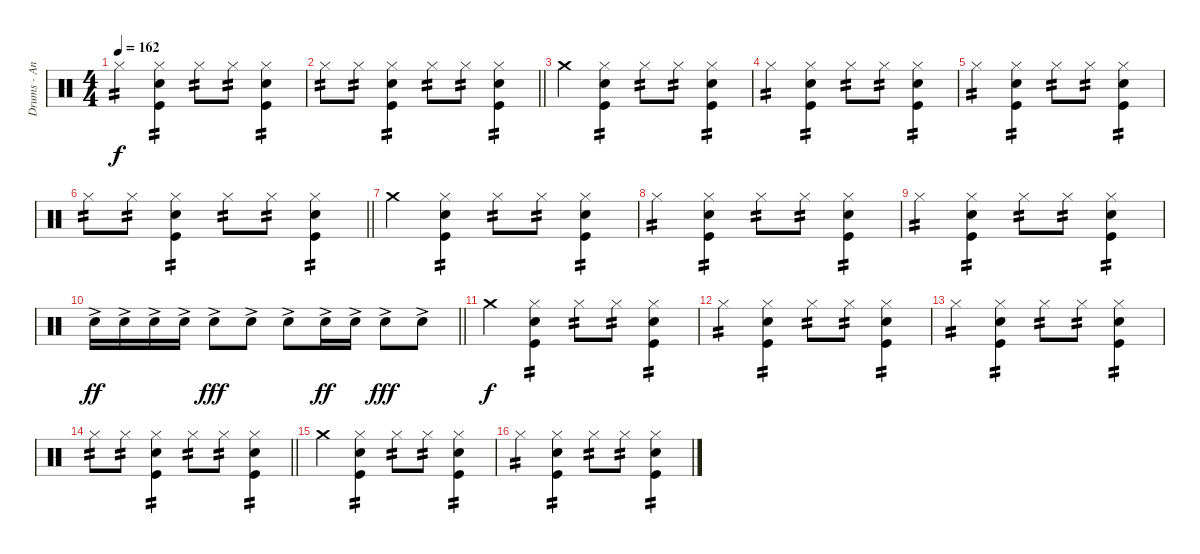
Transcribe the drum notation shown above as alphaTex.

\track ("Drums - Andriushkin" "Drums - An") {instrument percussion}
\staff {score}
\articulation defaults
\ts (4 4)
\tempo 162
\clef neutral
\ks c "Hi-Hat (closed)".4{tp 2 dy f}
("Hi-Hat (closed)" "Electric Snare (hit)" "Kick (hit)").4{tp 2} "Hi-Hat (closed)".8{tp 2} "Hi-Hat (closed)".8{tp 2} ("Hi-Hat (closed)" "Electric Snare (hit)" "Kick (hit)").4{tp 2} |
\barLineRight lightlight "Hi-Hat (closed)".8{tp 2} "Hi-Hat (closed)".8{tp 2}
("Hi-Hat (closed)" "Electric Snare (hit)" "Kick (hit)").4{tp 2} "Hi-Hat (closed)".8{tp 2} "Hi-Hat (closed)".8{tp 2} ("Hi-Hat (closed)" "Electric Snare (hit)" "Kick (hit)").4{tp 2} |
"Crash medium (hit)".4 ("Hi-Hat (closed)" "Electric Snare (hit)" "Kick (hit)").4{tp 2} "Hi-Hat (closed)".8{tp 2} "Hi-Hat (closed)".8{tp 2} ("Hi-Hat (closed)" "Electric Snare (hit)" "Kick (hit)").4{tp 2} |
"Hi-Hat (closed)".4{tp 2} ("Hi-Hat (closed)" "Electric Snare (hit)" "Kick (hit)").4{tp 2} "Hi-Hat (closed)".8{tp 2} "Hi-Hat (closed)".8{tp 2} ("Hi-Hat (closed)" "Electric Snare (hit)" "Kick (hit)").4{tp 2} |
"Hi-Hat (closed)".4{tp 2} ("Hi-Hat (closed)" "Electric Snare (hit)" "Kick (hit)").4{tp 2} "Hi-Hat (closed)".8{tp 2} "Hi-Hat (closed)".8{tp 2} ("Hi-Hat (closed)" "Electric Snare (hit)" "Kick (hit)").4{tp 2} |
\barLineRight lightlight "Hi-Hat (closed)".8{tp 2} "Hi-Hat (closed)".8{tp 2}
("Hi-Hat (closed)" "Electric Snare (hit)" "Kick (hit)").4{tp 2} "Hi-Hat (closed)".8{tp 2} "Hi-Hat (closed)".8{tp 2} ("Hi-Hat (closed)" "Electric Snare (hit)" "Kick (hit)").4{tp 2} |
"Crash medium (hit)".4 ("Hi-Hat (closed)" "Electric Snare (hit)" "Kick (hit)").4{tp 2} "Hi-Hat (closed)".8{tp 2} "Hi-Hat (closed)".8{tp 2} ("Hi-Hat (closed)" "Electric Snare (hit)" "Kick (hit)").4{tp 2} |
"Hi-Hat (closed)".4{tp 2} ("Hi-Hat (closed)" "Electric Snare (hit)" "Kick (hit)").4{tp 2} "Hi-Hat (closed)".8{tp 2} "Hi-Hat (closed)".8{tp 2} ("Hi-Hat (closed)" "Electric Snare (hit)" "Kick (hit)").4{tp 2} |
"Hi-Hat (closed)".4{tp 2} ("Hi-Hat (closed)" "Electric Snare (hit)" "Kick (hit)").4{tp 2} "Hi-Hat (closed)".8{tp 2} "Hi-Hat (closed)".8{tp 2} ("Hi-Hat (closed)" "Electric Snare (hit)" "Kick (hit)").4{tp 2} |
\barLineRight lightlight "Electric Snare (hit)"{ac}.16{dy ff} "Electric Snare (hit)"{ac}.16 "Electric Snare (hit)"{ac}.16 "Electric Snare (hit)"{ac}.16 "Electric Snare (hit)"{ac}.8{dy fff} "Electric Snare (hit)"{ac}.8 "Electric Snare (hit)"{ac}.8 "Electric Snare (hit)"{ac}.16{dy ff} "Electric Snare (hit)"{ac}.16 "Electric Snare (hit)"{ac}.8{dy fff} "Electric Snare (hit)"{ac}.8
|
"Crash medium (hit)".4{dy f} ("Hi-Hat (closed)" "Electric Snare (hit)" "Kick (hit)").4{tp 2} "Hi-Hat (closed)".8{tp 2} "Hi-Hat (closed)".8{tp 2} ("Hi-Hat (closed)" "Electric Snare (hit)" "Kick (hit)").4{tp 2} |
"Hi-Hat (closed)".4{tp 2} ("Hi-Hat (closed)" "Electric Snare (hit)" "Kick (hit)").4{tp 2} "Hi-Hat (closed)".8{tp 2} "Hi-Hat (closed)".8{tp 2} ("Hi-Hat (closed)" "Electric Snare (hit)" "Kick (hit)").4{tp 2} |
"Hi-Hat (closed)".4{tp 2} ("Hi-Hat (closed)" "Electric Snare (hit)" "Kick (hit)").4{tp 2} "Hi-Hat (closed)".8{tp 2} "Hi-Hat (closed)".8{tp 2} ("Hi-Hat (closed)" "Electric Snare (hit)" "Kick (hit)").4{tp 2} |
\barLineRight lightlight "Hi-Hat (closed)".8{tp 2} "Hi-Hat (closed)".8{tp 2}
("Hi-Hat (closed)" "Electric Snare (hit)" "Kick (hit)").4{tp 2} "Hi-Hat (closed)".8{tp 2} "Hi-Hat (closed)".8{tp 2} ("Hi-Hat (closed)" "Electric Snare (hit)" "Kick (hit)").4{tp 2} |
"Crash medium (hit)".4 ("Hi-Hat (closed)" "Electric Snare (hit)" "Kick (hit)").4{tp 2} "Hi-Hat (closed)".8{tp 2} "Hi-Hat (closed)".8{tp 2} ("Hi-Hat (closed)" "Electric Snare (hit)" "Kick (hit)").4{tp 2} |
"Hi-Hat (closed)".4{tp 2} ("Hi-Hat (closed)" "Electric Snare (hit)" "Kick (hit)").4{tp 2} "Hi-Hat (closed)".8{tp 2} "Hi-Hat (closed)".8{tp 2} ("Hi-Hat (closed)" "Electric Snare (hit)" "Kick (hit)").4{tp 2}
